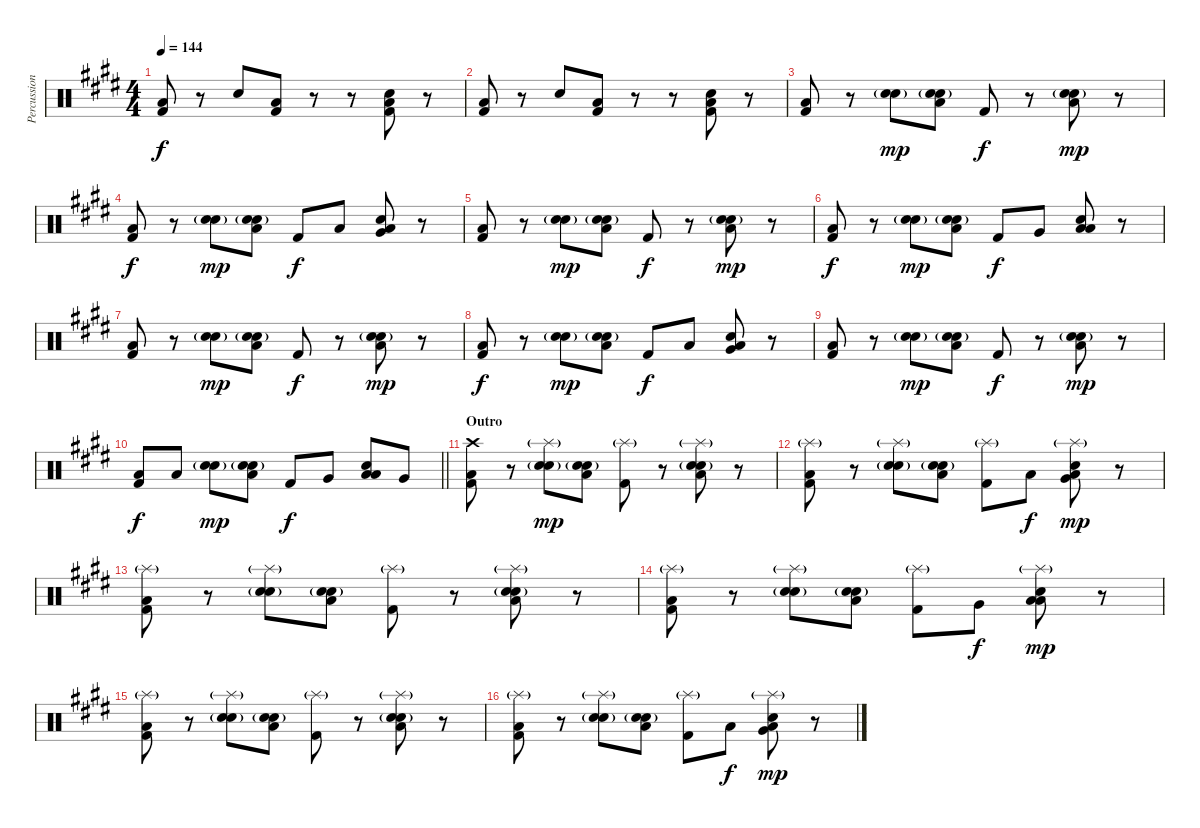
\track ("Percussion" "Percussion") {instrument percussion}
\staff {score}
\articulation defaults
\ts (4 4)
\tempo 144
\clef neutral
\ks e
("Low Floor Tom (hit)" "Kick (hit) 2").8{dy f} r.8 "Hand Clap (hit)".8 ("Low Floor Tom (hit)" "Kick (hit) 2").8 r.8 r.8 ("Hand Clap (hit)" "Low Floor Tom (hit)" "Kick (hit) 2").8 r.8 |
("Low Floor Tom (hit)" "Kick (hit) 2").8 r.8 "Hand Clap (hit)".8 ("Low Floor Tom (hit)" "Kick (hit) 2").8 r.8 r.8 ("Hand Clap (hit)" "Low Floor Tom (hit)" "Kick (hit) 2").8 r.8 |
("Low Floor Tom (hit)" "Kick (hit) 2").8 r.8 ("Hand Clap (hit)" "Electric Snare (hit)"{g}).8{dy mp} ("Hand Clap (hit)" "Electric Snare (hit)"{g} "Low Floor Tom (hit)").8 "Kick (hit) 2".8{dy f} r.8 ("Hand Clap (hit)" "Electric Snare (hit)"{g} "Low Floor Tom (hit)").8{dy mp} r.8 |
("Low Floor Tom (hit)" "Kick (hit) 2").8{dy f} r.8 ("Hand Clap (hit)" "Electric Snare (hit)"{g}).8{dy mp} ("Hand Clap (hit)" "Electric Snare (hit)"{g} "Low Floor Tom (hit)").8 "Kick (hit) 2".8{dy f} "Low Tom (hit)".8 ("Hand Clap (hit)" "Very Low Tom (hit)" "Low Floor Tom (hit)").8 r.8 |
("Low Floor Tom (hit)" "Kick (hit) 2").8 r.8 ("Hand Clap (hit)" "Electric Snare (hit)"{g}).8{dy mp} ("Hand Clap (hit)" "Electric Snare (hit)"{g} "Low Floor Tom (hit)").8 "Kick (hit) 2".8{dy f} r.8 ("Hand Clap (hit)" "Electric Snare (hit)"{g} "Low Floor Tom (hit)").8{dy mp} r.8 |
("Low Floor Tom (hit)" "Kick (hit) 2").8{dy f} r.8 ("Hand Clap (hit)" "Electric Snare (hit)"{g}).8{dy mp} ("Hand Clap (hit)" "Electric Snare (hit)"{g} "Low Floor Tom (hit)").8 "Kick (hit) 2".8{dy f} "Very Low Tom (hit)".8 ("Hand Clap (hit)" "Low Tom (hit)" "Low Floor Tom (hit)").8 r.8 |
("Low Floor Tom (hit)" "Kick (hit) 2").8 r.8 ("Hand Clap (hit)" "Electric Snare (hit)"{g}).8{dy mp} ("Hand Clap (hit)" "Electric Snare (hit)"{g} "Low Floor Tom (hit)").8 "Kick (hit) 2".8{dy f} r.8 ("Hand Clap (hit)" "Electric Snare (hit)"{g} "Low Floor Tom (hit)").8{dy mp} r.8 |
("Low Floor Tom (hit)" "Kick (hit) 2").8{dy f} r.8 ("Hand Clap (hit)" "Electric Snare (hit)"{g}).8{dy mp} ("Hand Clap (hit)" "Electric Snare (hit)"{g} "Low Floor Tom (hit)").8 "Kick (hit) 2".8{dy f} "Low Tom (hit)".8 ("Hand Clap (hit)" "Very Low Tom (hit)" "Low Floor Tom (hit)").8 r.8 |
("Low Floor Tom (hit)" "Kick (hit) 2").8 r.8 ("Hand Clap (hit)" "Electric Snare (hit)"{g}).8{dy mp} ("Hand Clap (hit)" "Electric Snare (hit)"{g} "Low Floor Tom (hit)").8 "Kick (hit) 2".8{dy f} r.8 ("Hand Clap (hit)" "Electric Snare (hit)"{g} "Low Floor Tom (hit)").8{dy mp} r.8 |
\barLineRight lightlight
("Low Floor Tom (hit)" "Kick (hit) 2").8{dy f} "Low Tom (hit)".8 ("Hand Clap (hit)" "Electric Snare (hit)"{g}).8{dy mp} ("Hand Clap (hit)" "Electric Snare (hit)"{g} "Low Floor Tom (hit)").8 "Kick (hit) 2".8{dy f} "Very Low Tom (hit)".8 ("Hand Clap (hit)" "Low Tom (hit)" "Low Floor Tom (hit)").8 "Very Low Tom (hit)".8 |
\section ("" "Outro")
("Crash high (hit)" "Low Floor Tom (hit)" "Kick (hit) 2").8 r.8 ("Splash (hit)"{g} "Hand Clap (hit)" "Electric Snare (hit)"{g}).8{dy mp} ("Hand Clap (hit)" "Electric Snare (hit)"{g} "Low Floor Tom (hit)").8 ("Splash (hit)"{g} "Kick (hit) 2").8 r.8 ("Splash (hit)"{g} "Hand Clap (hit)" "Electric Snare (hit)"{g} "Low Floor Tom (hit)").8 r.8 |
("Splash (hit)"{g} "Low Floor Tom (hit)" "Kick (hit) 2").8 r.8 ("Splash (hit)"{g} "Hand Clap (hit)" "Electric Snare (hit)"{g}).8 ("Hand Clap (hit)" "Electric Snare (hit)"{g} "Low Floor Tom (hit)").8 ("Splash (hit)"{g} "Kick (hit) 2").8 "Low Tom (hit)".8{dy f} ("Splash (hit)"{g} "Hand Clap (hit)" "Very Low Tom (hit)" "Low Floor Tom (hit)").8{dy mp} r.8 |
("Splash (hit)"{g} "Low Floor Tom (hit)" "Kick (hit) 2").8 r.8 ("Splash (hit)"{g} "Hand Clap (hit)" "Electric Snare (hit)"{g}).8 ("Hand Clap (hit)" "Electric Snare (hit)"{g} "Low Floor Tom (hit)").8 ("Splash (hit)"{g} "Kick (hit) 2").8 r.8 ("Splash (hit)"{g} "Hand Clap (hit)" "Electric Snare (hit)"{g} "Low Floor Tom (hit)").8 r.8 |
("Splash (hit)"{g} "Low Floor Tom (hit)" "Kick (hit) 2").8 r.8 ("Splash (hit)"{g} "Hand Clap (hit)" "Electric Snare (hit)"{g}).8 ("Hand Clap (hit)" "Electric Snare (hit)"{g} "Low Floor Tom (hit)").8 ("Splash (hit)"{g} "Kick (hit) 2").8 "Very Low Tom (hit)".8{dy f} ("Splash (hit)"{g} "Hand Clap (hit)" "Low Tom (hit)" "Low Floor Tom (hit)").8{dy mp} r.8 |
("Splash (hit)"{g} "Low Floor Tom (hit)" "Kick (hit) 2").8 r.8 ("Splash (hit)"{g} "Hand Clap (hit)" "Electric Snare (hit)"{g}).8 ("Hand Clap (hit)" "Electric Snare (hit)"{g} "Low Floor Tom (hit)").8 ("Splash (hit)"{g} "Kick (hit) 2").8 r.8 ("Splash (hit)"{g} "Hand Clap (hit)" "Electric Snare (hit)"{g} "Low Floor Tom (hit)").8 r.8 |
("Splash (hit)"{g} "Low Floor Tom (hit)" "Kick (hit) 2").8 r.8 ("Splash (hit)"{g} "Hand Clap (hit)" "Electric Snare (hit)"{g}).8 ("Hand Clap (hit)" "Electric Snare (hit)"{g} "Low Floor Tom (hit)").8 ("Splash (hit)"{g} "Kick (hit) 2").8 "Low Tom (hit)".8{dy f} ("Splash (hit)"{g} "Hand Clap (hit)" "Very Low Tom (hit)" "Low Floor Tom (hit)").8{dy mp} r.8
